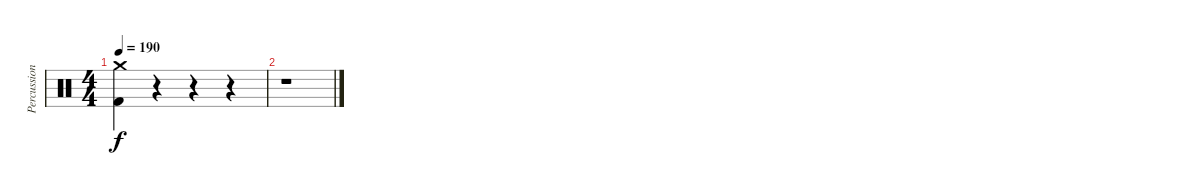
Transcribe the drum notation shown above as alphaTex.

\track ("Percussion" "Percussion") {instrument percussion}
\staff {score}
\articulation defaults
\ts (4 4)
\tempo 190
\clef neutral
\ks c
("Crash medium (hit)" "Kick (hit) 2").4{dy f} r.4{volume 0} r.4 r.4 |
r.1
